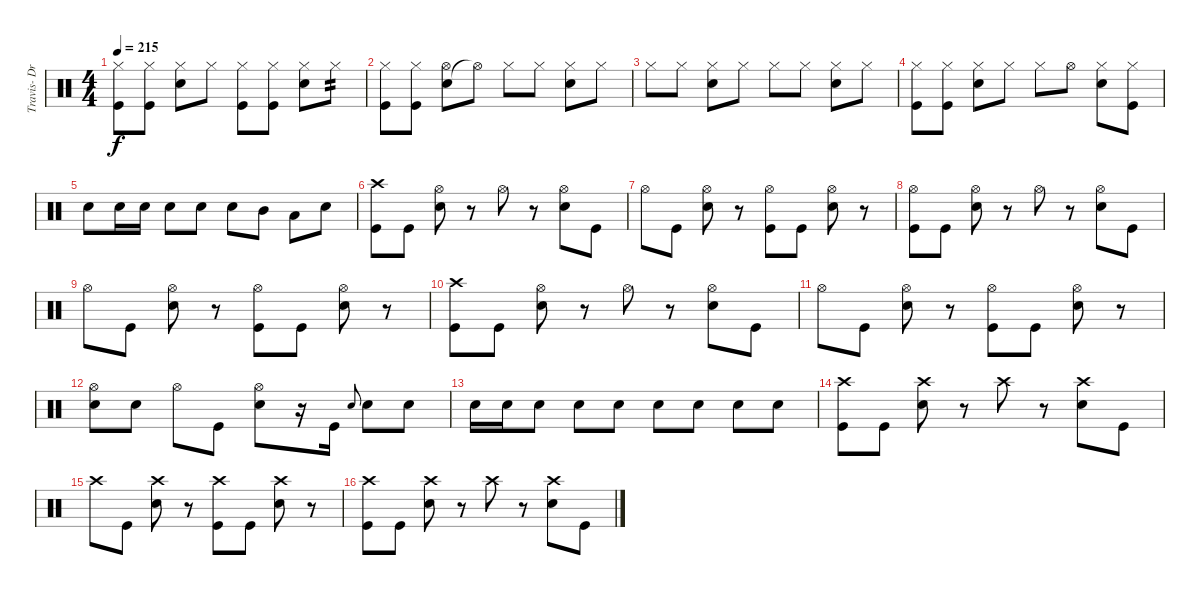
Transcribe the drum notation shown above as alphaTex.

\track ("Travis- Drums" "Travis- Dr") {instrument percussion}
\staff {score}
\articulation defaults
\ts (4 4)
\tempo 215
\clef neutral
\ks c
("Kick (hit)" "Hi-Hat (closed)").8{dy f} ("Kick (hit)" "Hi-Hat (closed)").8 ("Electric Snare (hit)" "Hi-Hat (closed)").8 "Hi-Hat (closed)".8 ("Kick (hit)" "Hi-Hat (closed)").8 ("Kick (hit)" "Hi-Hat (closed)").8 ("Electric Snare (hit)" "Hi-Hat (closed)").8 "Hi-Hat (closed)".8{tp 2} |
("Kick (hit)" "Hi-Hat (closed)").8 ("Kick (hit)" "Hi-Hat (closed)").8 ("Electric Snare (hit)" "Hi-Hat (open)").8 "Hi-Hat (open)"{t}.8 "Hi-Hat (closed)".8 "Hi-Hat (closed)".8 ("Electric Snare (hit)" "Hi-Hat (closed)").8 "Hi-Hat (closed)".8 |
"Hi-Hat (closed)".8 "Hi-Hat (closed)".8 ("Electric Snare (hit)" "Hi-Hat (closed)").8 "Hi-Hat (closed)".8 "Hi-Hat (closed)".8 "Hi-Hat (closed)".8 ("Electric Snare (hit)" "Hi-Hat (closed)").8 "Hi-Hat (closed)".8 |
("Kick (hit)" "Hi-Hat (closed)").8 ("Kick (hit)" "Hi-Hat (closed)").8 ("Electric Snare (hit)" "Hi-Hat (closed)").8 "Hi-Hat (closed)".8 "Hi-Hat (closed)".8 "Hi-Hat (open)".8 ("Electric Snare (hit)" "Hi-Hat (closed)").8 ("Kick (hit)" "Hi-Hat (closed)").8 |
"Electric Snare (hit)".8 "Electric Snare (hit)".16 "Electric Snare (hit)".16 "Electric Snare (hit)".8 "Electric Snare (hit)".8 "Electric Snare (hit)".8 "Mid Tom (hit)".8 "Low Tom (hit)".8 "Electric Snare (hit)".8 |
("Crash high (hit)" "Kick (hit)").8 "Kick (hit)".8 ("Hi-Hat (open)" "Electric Snare (hit)").8 r.8 "Hi-Hat (open)".8 r.8 ("Hi-Hat (open)" "Electric Snare (hit)").8 "Kick (hit)".8 |
"Hi-Hat (open)".8 "Kick (hit)".8 ("Hi-Hat (open)" "Electric Snare (hit)").8 r.8 ("Hi-Hat (open)" "Kick (hit)").8 "Kick (hit)".8 ("Hi-Hat (open)" "Electric Snare (hit)").8 r.8 |
("Hi-Hat (open)" "Kick (hit)").8 "Kick (hit)".8 ("Hi-Hat (open)" "Electric Snare (hit)").8 r.8 "Hi-Hat (open)".8 r.8 ("Hi-Hat (open)" "Electric Snare (hit)").8 "Kick (hit)".8 |
"Hi-Hat (open)".8 "Kick (hit)".8 ("Hi-Hat (open)" "Electric Snare (hit)").8 r.8 ("Hi-Hat (open)" "Kick (hit)").8 "Kick (hit)".8 ("Hi-Hat (open)" "Electric Snare (hit)").8 r.8 |
("Crash high (hit)" "Kick (hit)").8 "Kick (hit)".8 ("Hi-Hat (open)" "Electric Snare (hit)").8 r.8 "Hi-Hat (open)".8 r.8 ("Hi-Hat (open)" "Electric Snare (hit)").8 "Kick (hit)".8 |
"Hi-Hat (open)".8 "Kick (hit)".8 ("Hi-Hat (open)" "Electric Snare (hit)").8 r.8 ("Hi-Hat (open)" "Kick (hit)").8 "Kick (hit)".8 ("Hi-Hat (open)" "Electric Snare (hit)").8 r.8 |
("Hi-Hat (open)" "Electric Snare (hit)").8 "Electric Snare (hit)".8 "Hi-Hat (open)".8 "Kick (hit)".8 ("Hi-Hat (open)" "Electric Snare (hit)").8 r.16 "Kick (hit)".16 "Electric Snare (hit)".8{gr onbeat} "Electric Snare (hit)".8 "Electric Snare (hit)".8 |
"Electric Snare (hit)".16 "Electric Snare (hit)".16 "Electric Snare (hit)".8 "Electric Snare (hit)".8 "Electric Snare (hit)".8 "Electric Snare (hit)".8 "Electric Snare (hit)".8 "Electric Snare (hit)".8 "Electric Snare (hit)".8 |
("Crash high (hit)" "Kick (hit)").8 "Kick (hit)".8 ("Crash high (hit)" "Electric Snare (hit)").8 r.8 "Crash high (hit)".8 r.8 ("Crash high (hit)" "Electric Snare (hit)").8 "Kick (hit)".8 |
"Crash high (hit)".8 "Kick (hit)".8 ("Crash high (hit)" "Electric Snare (hit)").8 r.8 ("Crash high (hit)" "Kick (hit)").8 "Kick (hit)".8 ("Crash high (hit)" "Electric Snare (hit)").8 r.8 |
("Crash high (hit)" "Kick (hit)").8 "Kick (hit)".8 ("Crash high (hit)" "Electric Snare (hit)").8 r.8 "Crash high (hit)".8 r.8 ("Crash high (hit)" "Electric Snare (hit)").8 "Kick (hit)".8
